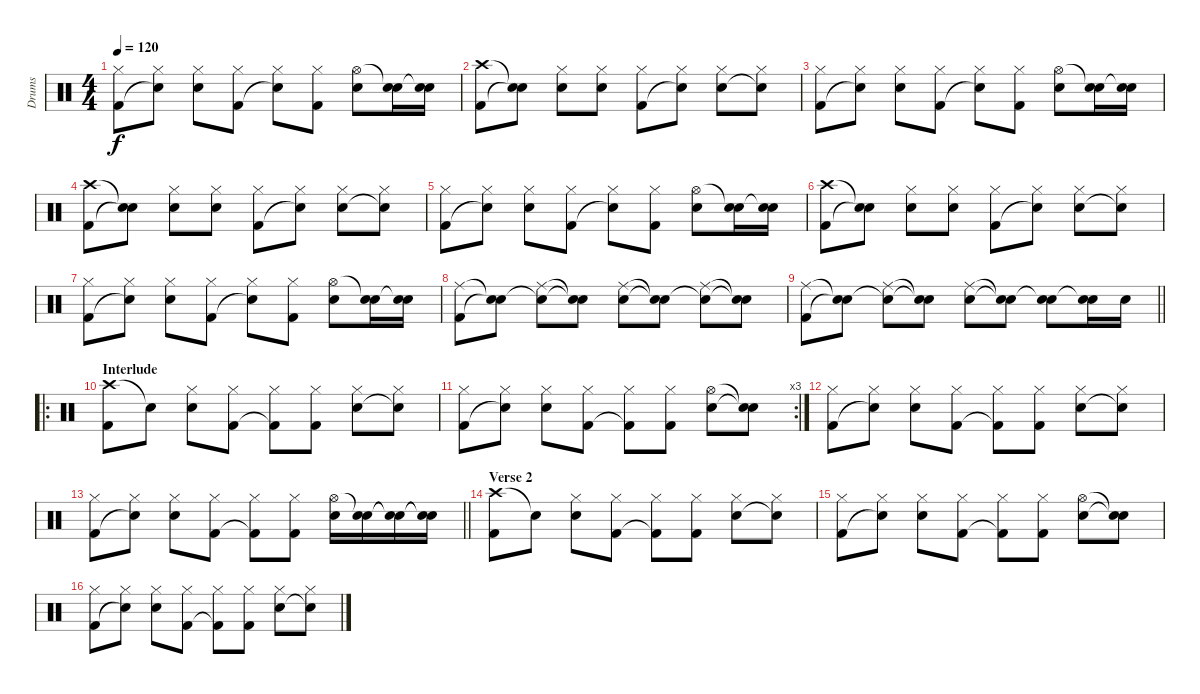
\track ("Drums" "Drums") {instrument percussion}
\staff {score}
\articulation defaults
\ts (4 4)
\tempo 120
\clef neutral
\ks c
("Hi-Hat (closed)" "Kick (hit) 2").8{dy f} ("Hi-Hat (closed)" "Snare (hit)"{t}).8 ("Hi-Hat (closed)" "Snare (hit) 2").8 ("Hi-Hat (closed)" "Kick (hit) 2").8 ("Hi-Hat (closed)" "Snare (hit)"{t}).8 ("Hi-Hat (closed)" "Kick (hit) 2").8 ("Hi-Hat (open)" "Snare (hit) 2").8 ("Snare (hit)"{t} "Snare (hit) 2").16 ("Snare (hit)"{t} "Snare (hit) 2").16 |
("Crash high (hit)" "Kick (hit) 2").8 ("Snare (hit)"{t} "Snare (hit)"{t}).8 ("Hi-Hat (closed)" "Snare (hit) 2").8 ("Hi-Hat (closed)" "Snare (hit) 2").8 ("Hi-Hat (closed)" "Kick (hit) 2").8 ("Hi-Hat (closed)" "Snare (hit)"{t}).8 ("Hi-Hat (closed)" "Snare (hit) 2").8 ("Hi-Hat (closed)" "Snare (hit)"{t}).8 |
("Hi-Hat (closed)" "Kick (hit) 2").8 ("Hi-Hat (closed)" "Snare (hit)"{t}).8 ("Hi-Hat (closed)" "Snare (hit) 2").8 ("Hi-Hat (closed)" "Kick (hit) 2").8 ("Hi-Hat (closed)" "Snare (hit)"{t}).8 ("Hi-Hat (closed)" "Kick (hit) 2").8 ("Hi-Hat (open)" "Snare (hit) 2").8 ("Snare (hit)"{t} "Snare (hit) 2").16 ("Snare (hit)"{t} "Snare (hit) 2").16 |
("Crash high (hit)" "Kick (hit) 2").8 ("Snare (hit)"{t} "Snare (hit)"{t}).8 ("Hi-Hat (closed)" "Snare (hit) 2").8 ("Hi-Hat (closed)" "Snare (hit) 2").8 ("Hi-Hat (closed)" "Kick (hit) 2").8 ("Hi-Hat (closed)" "Snare (hit)"{t}).8 ("Hi-Hat (closed)" "Snare (hit) 2").8 ("Hi-Hat (closed)" "Snare (hit)"{t}).8 |
("Hi-Hat (closed)" "Kick (hit) 2").8 ("Hi-Hat (closed)" "Snare (hit)"{t}).8 ("Hi-Hat (closed)" "Snare (hit) 2").8 ("Hi-Hat (closed)" "Kick (hit) 2").8 ("Hi-Hat (closed)" "Snare (hit)"{t}).8 ("Hi-Hat (closed)" "Kick (hit) 2").8 ("Hi-Hat (open)" "Snare (hit) 2").8 ("Snare (hit)"{t} "Snare (hit) 2").16 ("Snare (hit)"{t} "Snare (hit) 2").16 |
("Crash high (hit)" "Kick (hit) 2").8 ("Snare (hit)"{t} "Snare (hit)"{t}).8 ("Hi-Hat (closed)" "Snare (hit) 2").8 ("Hi-Hat (closed)" "Snare (hit) 2").8 ("Hi-Hat (closed)" "Kick (hit) 2").8 ("Hi-Hat (closed)" "Snare (hit)"{t}).8 ("Hi-Hat (closed)" "Snare (hit) 2").8 ("Hi-Hat (closed)" "Snare (hit)"{t}).8 |
("Hi-Hat (closed)" "Kick (hit) 2").8 ("Hi-Hat (closed)" "Snare (hit)"{t}).8 ("Hi-Hat (closed)" "Snare (hit) 2").8 ("Hi-Hat (closed)" "Kick (hit) 2").8 ("Hi-Hat (closed)" "Snare (hit)"{t}).8 ("Hi-Hat (closed)" "Kick (hit) 2").8 ("Hi-Hat (open)" "Snare (hit) 2").8 ("Snare (hit)"{t} "Snare (hit) 2").16 ("Snare (hit)"{t} "Snare (hit) 2").16 |
("Ride (middle)" "Kick (hit) 2").8 ("Snare (hit)"{t} "Snare (hit)"{t}).8 ("Ride (middle)" "Snare (hit)"{t}).8 ("Snare (hit)"{t} "Snare (hit)"{t}).8 ("Ride (middle)" "Snare (hit) 2").8 ("Snare (hit)"{t} "Snare (hit)"{t}).8 ("Ride (middle)" "Snare (hit)"{t}).8 ("Snare (hit)"{t} "Snare (hit)"{t}).8 |
\barLineRight lightlight
("Ride (middle)" "Kick (hit) 2").8 ("Snare (hit)"{t} "Snare (hit)"{t}).8 ("Ride (middle)" "Snare (hit)"{t}).8 ("Snare (hit)"{t} "Snare (hit)"{t}).8 ("Ride (middle)" "Snare (hit) 2").8 ("Snare (hit)"{t} "Snare (hit)"{t}).8 ("Snare (hit)"{t} "Snare (hit) 2").8 ("Snare (hit)"{t} "Snare (hit) 2").16 "Snare (hit) 2".16 |
\ro
\section ("" "Interlude")
("Crash high (hit)" "Kick (hit) 2").8 "Snare (hit)"{t}.8 ("Hi-Hat (closed)" "Snare (hit) 2").8 ("Hi-Hat (closed)" "Kick (hit) 2").8 ("Hi-Hat (closed)" "Kick (hit) 2"{t}).8 ("Hi-Hat (closed)" "Kick (hit) 2").8 ("Hi-Hat (closed)" "Snare (hit) 2").8 ("Hi-Hat (closed)" "Snare (hit)"{t}).8 |
\rc 3
("Hi-Hat (closed)" "Kick (hit) 2").8 ("Hi-Hat (closed)" "Snare (hit)"{t}).8 ("Hi-Hat (closed)" "Snare (hit) 2").8 ("Hi-Hat (closed)" "Kick (hit) 2").8 ("Hi-Hat (closed)" "Kick (hit) 2"{t}).8 ("Hi-Hat (closed)" "Kick (hit) 2").8 ("Hi-Hat (open)" "Snare (hit) 2").8 ("Snare (hit)"{t} "Snare (hit)"{t}).8 |
("Hi-Hat (closed)" "Kick (hit) 2").8 ("Hi-Hat (closed)" "Snare (hit)"{t}).8 ("Hi-Hat (closed)" "Snare (hit) 2").8 ("Hi-Hat (closed)" "Kick (hit) 2").8 ("Hi-Hat (closed)" "Kick (hit) 2"{t}).8 ("Hi-Hat (closed)" "Kick (hit) 2").8 ("Hi-Hat (closed)" "Snare (hit) 2").8 ("Hi-Hat (closed)" "Snare (hit)"{t}).8 |
\barLineRight lightlight
("Hi-Hat (closed)" "Kick (hit) 2").8 ("Hi-Hat (closed)" "Snare (hit)"{t}).8 ("Hi-Hat (closed)" "Snare (hit) 2").8 ("Hi-Hat (closed)" "Kick (hit) 2").8 ("Hi-Hat (closed)" "Kick (hit) 2"{t}).8 ("Hi-Hat (closed)" "Kick (hit) 2").8 ("Hi-Hat (open)" "Snare (hit) 2").16 ("Snare (hit)"{t} "Snare (hit) 2").16 ("Snare (hit)"{t} "Snare (hit) 2"{t}).16 ("Snare (hit)"{t} "Snare (hit) 2"{t}).16 |
\section ("" "Verse 2")
("Crash high (hit)" "Kick (hit) 2").8 "Snare (hit)"{t}.8 ("Hi-Hat (closed)" "Snare (hit) 2").8 ("Hi-Hat (closed)" "Kick (hit) 2").8 ("Hi-Hat (closed)" "Kick (hit) 2"{t}).8 ("Hi-Hat (closed)" "Kick (hit) 2").8 ("Hi-Hat (closed)" "Snare (hit) 2").8 ("Hi-Hat (closed)" "Snare (hit)"{t}).8 |
("Hi-Hat (closed)" "Kick (hit) 2").8 ("Hi-Hat (closed)" "Snare (hit)"{t}).8 ("Hi-Hat (closed)" "Snare (hit) 2").8 ("Hi-Hat (closed)" "Kick (hit) 2").8 ("Hi-Hat (closed)" "Kick (hit) 2"{t}).8 ("Hi-Hat (closed)" "Kick (hit) 2").8 ("Hi-Hat (open)" "Snare (hit) 2").8 ("Snare (hit)"{t} "Snare (hit)"{t}).8 |
("Hi-Hat (closed)" "Kick (hit) 2").8 ("Hi-Hat (closed)" "Snare (hit)"{t}).8 ("Hi-Hat (closed)" "Snare (hit) 2").8 ("Hi-Hat (closed)" "Kick (hit) 2").8 ("Hi-Hat (closed)" "Kick (hit) 2"{t}).8 ("Hi-Hat (closed)" "Kick (hit) 2").8 ("Hi-Hat (closed)" "Snare (hit) 2").8 ("Hi-Hat (closed)" "Snare (hit)"{t}).8
